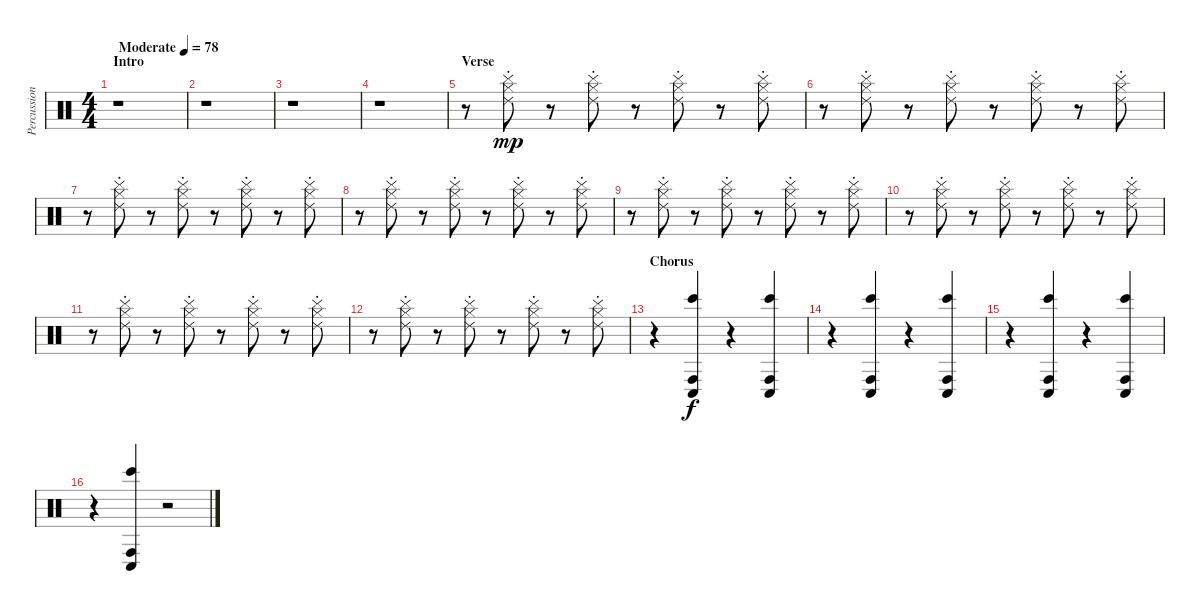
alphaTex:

\track ("Percussion/SFX" "Percussion") {instrument percussion}
\staff {score}
\articulation defaults
\ts (4 4)
\section ("" "Intro")
\tempo (78 "Moderate")
\clef neutral
\ks c
r.1{dy mp} |
r.1 |
r.1 |
r.1 |
\section ("" "Verse")
r.8 ("Ride (choke) 2" "Cymbal (hit)" "Hi-Hat (closed)").8 r.8 ("Ride (choke) 2" "Cymbal (hit)" "Hi-Hat (closed)").8 r.8 ("Ride (choke) 2" "Cymbal (hit)" "Hi-Hat (closed)").8 r.8 ("Ride (choke) 2" "Cymbal (hit)" "Hi-Hat (closed)").8 |
r.8 ("Ride (choke) 2" "Cymbal (hit)" "Hi-Hat (closed)").8 r.8 ("Ride (choke) 2" "Cymbal (hit)" "Hi-Hat (closed)").8 r.8 ("Ride (choke) 2" "Cymbal (hit)" "Hi-Hat (closed)").8 r.8 ("Ride (choke) 2" "Cymbal (hit)" "Hi-Hat (closed)").8 |
r.8 ("Ride (choke) 2" "Cymbal (hit)" "Hi-Hat (closed)").8 r.8 ("Ride (choke) 2" "Cymbal (hit)" "Hi-Hat (closed)").8 r.8 ("Ride (choke) 2" "Cymbal (hit)" "Hi-Hat (closed)").8 r.8 ("Ride (choke) 2" "Cymbal (hit)" "Hi-Hat (closed)").8 |
r.8 ("Ride (choke) 2" "Cymbal (hit)" "Hi-Hat (closed)").8 r.8 ("Ride (choke) 2" "Cymbal (hit)" "Hi-Hat (closed)").8 r.8 ("Ride (choke) 2" "Cymbal (hit)" "Hi-Hat (closed)").8 r.8 ("Ride (choke) 2" "Cymbal (hit)" "Hi-Hat (closed)").8 |
r.8 ("Ride (choke) 2" "Cymbal (hit)" "Hi-Hat (closed)").8 r.8 ("Ride (choke) 2" "Cymbal (hit)" "Hi-Hat (closed)").8 r.8 ("Ride (choke) 2" "Cymbal (hit)" "Hi-Hat (closed)").8 r.8 ("Ride (choke) 2" "Cymbal (hit)" "Hi-Hat (closed)").8 |
r.8 ("Ride (choke) 2" "Cymbal (hit)" "Hi-Hat (closed)").8 r.8 ("Ride (choke) 2" "Cymbal (hit)" "Hi-Hat (closed)").8 r.8 ("Ride (choke) 2" "Cymbal (hit)" "Hi-Hat (closed)").8 r.8 ("Ride (choke) 2" "Cymbal (hit)" "Hi-Hat (closed)").8 |
r.8 ("Ride (choke) 2" "Cymbal (hit)" "Hi-Hat (closed)").8 r.8 ("Ride (choke) 2" "Cymbal (hit)" "Hi-Hat (closed)").8 r.8 ("Ride (choke) 2" "Cymbal (hit)" "Hi-Hat (closed)").8 r.8 ("Ride (choke) 2" "Cymbal (hit)" "Hi-Hat (closed)").8 |
r.8 ("Ride (choke) 2" "Cymbal (hit)" "Hi-Hat (closed)").8 r.8 ("Ride (choke) 2" "Cymbal (hit)" "Hi-Hat (closed)").8 r.8 ("Ride (choke) 2" "Cymbal (hit)" "Hi-Hat (closed)").8 r.8 ("Ride (choke) 2" "Cymbal (hit)" "Hi-Hat (closed)").8 |
\section ("" "Chorus")
r.4 ("Conga low (hit)" "Bongo High (hit)" "Conga high (hit)").4{dy f} r.4 ("Conga low (hit)" "Bongo High (hit)" "Conga high (hit)").4 |
r.4 ("Conga low (hit)" "Bongo High (hit)" "Conga high (hit)").4 r.4 ("Conga low (hit)" "Bongo High (hit)" "Conga high (hit)").4 |
r.4 ("Conga low (hit)" "Bongo High (hit)" "Conga high (hit)").4 r.4 ("Conga low (hit)" "Bongo High (hit)" "Conga high (hit)").4 |
r.4 ("Conga low (hit)" "Bongo High (hit)" "Conga high (hit)").4 r.2
